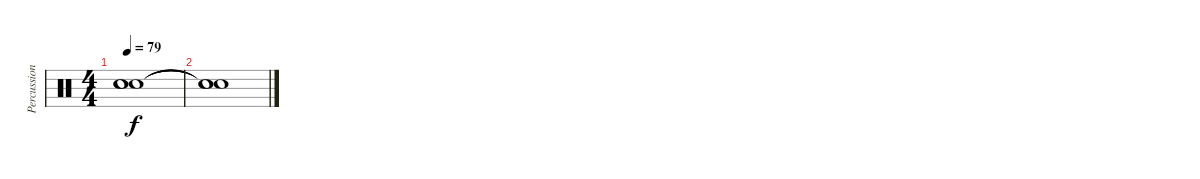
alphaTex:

\track ("Percussion" "Percussion") {instrument percussion}
\staff {score}
\articulation defaults
\ts (4 4)
\tempo 79
\clef neutral
\ks c
("Snare (hit)"{t} "Snare (hit)"{t} "Snare (hit)"{t}).1{dy f} |
("Snare (hit)"{t} "Snare (hit)"{t} "Snare (hit)"{t}).1
